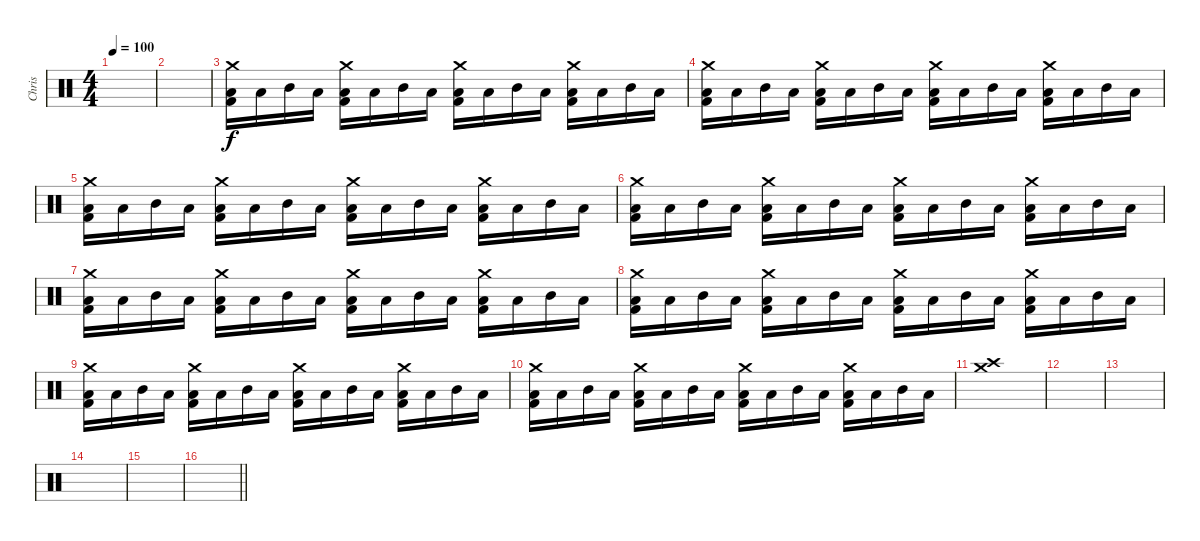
\track ("Chris" "Chris") {instrument percussion}
\staff {score}
\articulation defaults
\ts (4 4)
\tempo 100
\clef neutral
\ks c
|
|
("Crash medium (hit)" "Low Tom (hit)" "Kick (hit) 2").16{dy f volume 8} "Low Tom (hit)".16 "Mid Tom (hit)".16 "Low Tom (hit)".16 ("Crash medium (hit)" "Low Tom (hit)" "Kick (hit) 2").16 "Low Tom (hit)".16 "Mid Tom (hit)".16 "Low Tom (hit)".16 ("Crash medium (hit)" "Low Tom (hit)" "Kick (hit) 2").16 "Low Tom (hit)".16 "Mid Tom (hit)".16 "Low Tom (hit)".16 ("Crash medium (hit)" "Low Tom (hit)" "Kick (hit) 2").16 "Low Tom (hit)".16 "Mid Tom (hit)".16 "Low Tom (hit)".16 |
("Crash medium (hit)" "Low Tom (hit)" "Kick (hit) 2").16 "Low Tom (hit)".16 "Mid Tom (hit)".16 "Low Tom (hit)".16 ("Crash medium (hit)" "Low Tom (hit)" "Kick (hit) 2").16 "Low Tom (hit)".16 "Mid Tom (hit)".16 "Low Tom (hit)".16 ("Crash medium (hit)" "Low Tom (hit)" "Kick (hit) 2").16 "Low Tom (hit)".16 "Mid Tom (hit)".16 "Low Tom (hit)".16 ("Crash medium (hit)" "Low Tom (hit)" "Kick (hit) 2").16 "Low Tom (hit)".16 "Mid Tom (hit)".16 "Low Tom (hit)".16 |
("Crash medium (hit)" "Low Tom (hit)" "Kick (hit) 2").16 "Low Tom (hit)".16 "Mid Tom (hit)".16 "Low Tom (hit)".16 ("Crash medium (hit)" "Low Tom (hit)" "Kick (hit) 2").16 "Low Tom (hit)".16 "Mid Tom (hit)".16 "Low Tom (hit)".16 ("Crash medium (hit)" "Low Tom (hit)" "Kick (hit) 2").16 "Low Tom (hit)".16 "Mid Tom (hit)".16 "Low Tom (hit)".16 ("Crash medium (hit)" "Low Tom (hit)" "Kick (hit) 2").16 "Low Tom (hit)".16 "Mid Tom (hit)".16 "Low Tom (hit)".16 |
("Crash medium (hit)" "Low Tom (hit)" "Kick (hit) 2").16 "Low Tom (hit)".16 "Mid Tom (hit)".16 "Low Tom (hit)".16 ("Crash medium (hit)" "Low Tom (hit)" "Kick (hit) 2").16 "Low Tom (hit)".16 "Mid Tom (hit)".16 "Low Tom (hit)".16 ("Crash medium (hit)" "Low Tom (hit)" "Kick (hit) 2").16 "Low Tom (hit)".16 "Mid Tom (hit)".16 "Low Tom (hit)".16 ("Crash medium (hit)" "Low Tom (hit)" "Kick (hit) 2").16 "Low Tom (hit)".16 "Mid Tom (hit)".16 "Low Tom (hit)".16 |
("Crash medium (hit)" "Low Tom (hit)" "Kick (hit) 2").16{volume 8} "Low Tom (hit)".16 "Mid Tom (hit)".16 "Low Tom (hit)".16 ("Crash medium (hit)" "Low Tom (hit)" "Kick (hit) 2").16 "Low Tom (hit)".16 "Mid Tom (hit)".16 "Low Tom (hit)".16 ("Crash medium (hit)" "Low Tom (hit)" "Kick (hit) 2").16 "Low Tom (hit)".16 "Mid Tom (hit)".16 "Low Tom (hit)".16 ("Crash medium (hit)" "Low Tom (hit)" "Kick (hit) 2").16 "Low Tom (hit)".16 "Mid Tom (hit)".16 "Low Tom (hit)".16 |
("Crash medium (hit)" "Low Tom (hit)" "Kick (hit) 2").16 "Low Tom (hit)".16 "Mid Tom (hit)".16 "Low Tom (hit)".16 ("Crash medium (hit)" "Low Tom (hit)" "Kick (hit) 2").16 "Low Tom (hit)".16 "Mid Tom (hit)".16 "Low Tom (hit)".16 ("Crash medium (hit)" "Low Tom (hit)" "Kick (hit) 2").16 "Low Tom (hit)".16 "Mid Tom (hit)".16 "Low Tom (hit)".16 ("Crash medium (hit)" "Low Tom (hit)" "Kick (hit) 2").16 "Low Tom (hit)".16 "Mid Tom (hit)".16 "Low Tom (hit)".16 |
("Crash medium (hit)" "Low Tom (hit)" "Kick (hit) 2").16 "Low Tom (hit)".16 "Mid Tom (hit)".16 "Low Tom (hit)".16 ("Crash medium (hit)" "Low Tom (hit)" "Kick (hit) 2").16 "Low Tom (hit)".16 "Mid Tom (hit)".16 "Low Tom (hit)".16 ("Crash medium (hit)" "Low Tom (hit)" "Kick (hit) 2").16 "Low Tom (hit)".16 "Mid Tom (hit)".16 "Low Tom (hit)".16 ("Crash medium (hit)" "Low Tom (hit)" "Kick (hit) 2").16 "Low Tom (hit)".16 "Mid Tom (hit)".16 "Low Tom (hit)".16 |
("Crash medium (hit)" "Low Tom (hit)" "Kick (hit) 2").16 "Low Tom (hit)".16 "Mid Tom (hit)".16 "Low Tom (hit)".16 ("Crash medium (hit)" "Low Tom (hit)" "Kick (hit) 2").16 "Low Tom (hit)".16 "Mid Tom (hit)".16 "Low Tom (hit)".16 ("Crash medium (hit)" "Low Tom (hit)" "Kick (hit) 2").16 "Low Tom (hit)".16 "Mid Tom (hit)".16 "Low Tom (hit)".16 ("Crash medium (hit)" "Low Tom (hit)" "Kick (hit) 2").16 "Low Tom (hit)".16 "Mid Tom (hit)".16 "Low Tom (hit)".16 |
("Crash medium (hit)" "Crash high (hit)").1 |
|
|
|
|
\barLineRight lightlight
